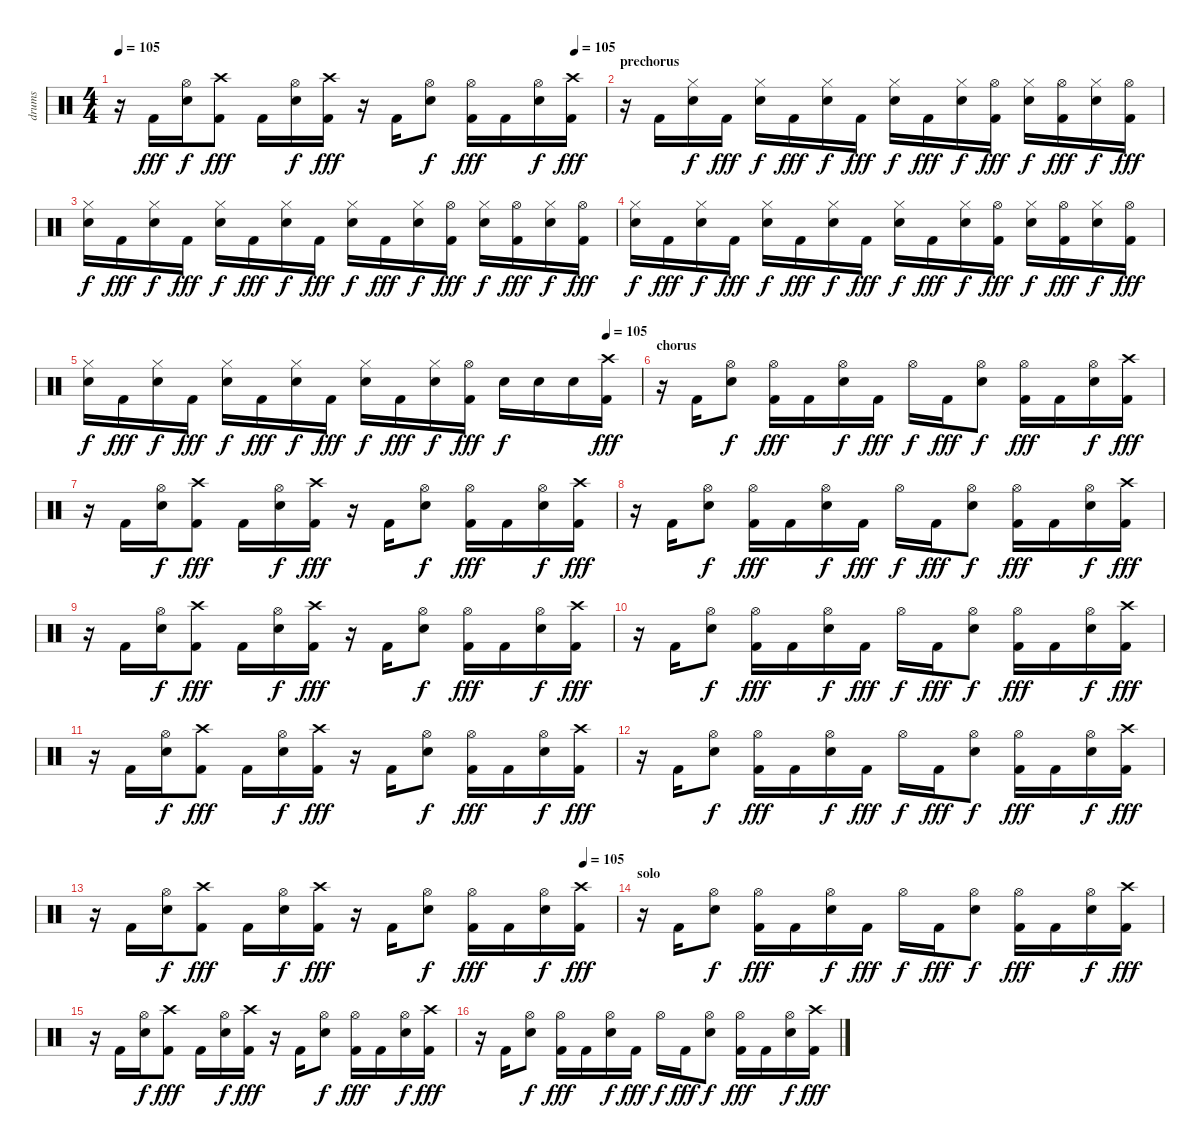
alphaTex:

\track ("drums" "drums") {instrument percussion}
\staff {score}
\articulation defaults
\ts (4 4)
\tempo 105
\tempo (105 0.9375)
\clef neutral
\ks c
r.16{dy fff} "Kick (hit) 2".16 ("Hi-Hat (open)" "Snare (hit) 2").16{dy f} ("Crash high (hit)" "Kick (hit) 2").8{dy fff} "Kick (hit) 2".16 ("Hi-Hat (open)" "Snare (hit) 2").16{dy f} ("Crash high (hit)" "Kick (hit) 2").16{dy fff} r.16 "Kick (hit) 2".16 ("Hi-Hat (open)" "Snare (hit) 2").8{dy f} ("Hi-Hat (open)" "Kick (hit) 2").16{dy fff} "Kick (hit) 2".16 ("Hi-Hat (open)" "Snare (hit) 2").16{dy f} ("Crash high (hit)" "Kick (hit) 2").16{dy fff} |
\section ("" "prechorus")
r.16 "Kick (hit) 2".16 ("Hi-Hat (closed)" "Snare (hit) 2").16{dy f} "Kick (hit) 2".16{dy fff} ("Hi-Hat (closed)" "Snare (hit) 2").16{dy f} "Kick (hit) 2".16{dy fff} ("Hi-Hat (closed)" "Snare (hit) 2").16{dy f} "Kick (hit) 2".16{dy fff} ("Hi-Hat (closed)" "Snare (hit) 2").16{dy f} "Kick (hit) 2".16{dy fff} ("Hi-Hat (closed)" "Snare (hit) 2").16{dy f} ("Hi-Hat (open)" "Kick (hit) 2").16{dy fff} ("Hi-Hat (closed)" "Snare (hit) 2").16{dy f} ("Hi-Hat (open)" "Kick (hit) 2").16{dy fff} ("Hi-Hat (closed)" "Snare (hit) 2").16{dy f} ("Hi-Hat (open)" "Kick (hit) 2").16{dy fff} |
("Hi-Hat (closed)" "Snare (hit) 2").16{dy f} "Kick (hit) 2".16{dy fff} ("Hi-Hat (closed)" "Snare (hit) 2").16{dy f} "Kick (hit) 2".16{dy fff} ("Hi-Hat (closed)" "Snare (hit) 2").16{dy f} "Kick (hit) 2".16{dy fff} ("Hi-Hat (closed)" "Snare (hit) 2").16{dy f} "Kick (hit) 2".16{dy fff} ("Hi-Hat (closed)" "Snare (hit) 2").16{dy f} "Kick (hit) 2".16{dy fff} ("Hi-Hat (closed)" "Snare (hit) 2").16{dy f} ("Hi-Hat (open)" "Kick (hit) 2").16{dy fff} ("Hi-Hat (closed)" "Snare (hit) 2").16{dy f} ("Hi-Hat (open)" "Kick (hit) 2").16{dy fff} ("Hi-Hat (closed)" "Snare (hit) 2").16{dy f} ("Hi-Hat (open)" "Kick (hit) 2").16{dy fff} |
("Hi-Hat (closed)" "Snare (hit) 2").16{dy f} "Kick (hit) 2".16{dy fff} ("Hi-Hat (closed)" "Snare (hit) 2").16{dy f} "Kick (hit) 2".16{dy fff} ("Hi-Hat (closed)" "Snare (hit) 2").16{dy f} "Kick (hit) 2".16{dy fff} ("Hi-Hat (closed)" "Snare (hit) 2").16{dy f} "Kick (hit) 2".16{dy fff} ("Hi-Hat (closed)" "Snare (hit) 2").16{dy f} "Kick (hit) 2".16{dy fff} ("Hi-Hat (closed)" "Snare (hit) 2").16{dy f} ("Hi-Hat (open)" "Kick (hit) 2").16{dy fff} ("Hi-Hat (closed)" "Snare (hit) 2").16{dy f} ("Hi-Hat (open)" "Kick (hit) 2").16{dy fff} ("Hi-Hat (closed)" "Snare (hit) 2").16{dy f} ("Hi-Hat (open)" "Kick (hit) 2").16{dy fff} |
\tempo (105 0.9375)
("Hi-Hat (closed)" "Snare (hit) 2").16{dy f} "Kick (hit) 2".16{dy fff} ("Hi-Hat (closed)" "Snare (hit) 2").16{dy f} "Kick (hit) 2".16{dy fff} ("Hi-Hat (closed)" "Snare (hit) 2").16{dy f} "Kick (hit) 2".16{dy fff} ("Hi-Hat (closed)" "Snare (hit) 2").16{dy f} "Kick (hit) 2".16{dy fff} ("Hi-Hat (closed)" "Snare (hit) 2").16{dy f} "Kick (hit) 2".16{dy fff} ("Hi-Hat (closed)" "Snare (hit) 2").16{dy f} ("Hi-Hat (open)" "Kick (hit) 2").16{dy fff} "Snare (hit) 2".16{dy f} "Snare (hit) 2".16 "Snare (hit) 2".16 ("Crash high (hit)" "Kick (hit) 2").16{dy fff} |
\section ("" "chorus")
r.16 "Kick (hit) 2".16 ("Hi-Hat (open)" "Snare (hit) 2").8{dy f} ("Hi-Hat (open)" "Kick (hit) 2").16{dy fff} "Kick (hit) 2".16 ("Hi-Hat (open)" "Snare (hit) 2").16{dy f} "Kick (hit) 2".16{dy fff} "Hi-Hat (open)".16{dy f} "Kick (hit) 2".16{dy fff} ("Hi-Hat (open)" "Snare (hit) 2").8{dy f} ("Hi-Hat (open)" "Kick (hit) 2").16{dy fff} "Kick (hit) 2".16 ("Hi-Hat (open)" "Snare (hit) 2").16{dy f} ("Crash high (hit)" "Kick (hit) 2").16{dy fff} |
r.16 "Kick (hit) 2".16 ("Hi-Hat (open)" "Snare (hit) 2").16{dy f} ("Crash high (hit)" "Kick (hit) 2").8{dy fff} "Kick (hit) 2".16 ("Hi-Hat (open)" "Snare (hit) 2").16{dy f} ("Crash high (hit)" "Kick (hit) 2").16{dy fff} r.16 "Kick (hit) 2".16 ("Hi-Hat (open)" "Snare (hit) 2").8{dy f} ("Hi-Hat (open)" "Kick (hit) 2").16{dy fff} "Kick (hit) 2".16 ("Hi-Hat (open)" "Snare (hit) 2").16{dy f} ("Crash high (hit)" "Kick (hit) 2").16{dy fff} |
r.16 "Kick (hit) 2".16 ("Hi-Hat (open)" "Snare (hit) 2").8{dy f} ("Hi-Hat (open)" "Kick (hit) 2").16{dy fff} "Kick (hit) 2".16 ("Hi-Hat (open)" "Snare (hit) 2").16{dy f} "Kick (hit) 2".16{dy fff} "Hi-Hat (open)".16{dy f} "Kick (hit) 2".16{dy fff} ("Hi-Hat (open)" "Snare (hit) 2").8{dy f} ("Hi-Hat (open)" "Kick (hit) 2").16{dy fff} "Kick (hit) 2".16 ("Hi-Hat (open)" "Snare (hit) 2").16{dy f} ("Crash high (hit)" "Kick (hit) 2").16{dy fff} |
r.16 "Kick (hit) 2".16 ("Hi-Hat (open)" "Snare (hit) 2").16{dy f} ("Crash high (hit)" "Kick (hit) 2").8{dy fff} "Kick (hit) 2".16 ("Hi-Hat (open)" "Snare (hit) 2").16{dy f} ("Crash high (hit)" "Kick (hit) 2").16{dy fff} r.16 "Kick (hit) 2".16 ("Hi-Hat (open)" "Snare (hit) 2").8{dy f} ("Hi-Hat (open)" "Kick (hit) 2").16{dy fff} "Kick (hit) 2".16 ("Hi-Hat (open)" "Snare (hit) 2").16{dy f} ("Crash high (hit)" "Kick (hit) 2").16{dy fff} |
r.16 "Kick (hit) 2".16 ("Hi-Hat (open)" "Snare (hit) 2").8{dy f} ("Hi-Hat (open)" "Kick (hit) 2").16{dy fff} "Kick (hit) 2".16 ("Hi-Hat (open)" "Snare (hit) 2").16{dy f} "Kick (hit) 2".16{dy fff} "Hi-Hat (open)".16{dy f} "Kick (hit) 2".16{dy fff} ("Hi-Hat (open)" "Snare (hit) 2").8{dy f} ("Hi-Hat (open)" "Kick (hit) 2").16{dy fff} "Kick (hit) 2".16 ("Hi-Hat (open)" "Snare (hit) 2").16{dy f} ("Crash high (hit)" "Kick (hit) 2").16{dy fff} |
r.16 "Kick (hit) 2".16 ("Hi-Hat (open)" "Snare (hit) 2").16{dy f} ("Crash high (hit)" "Kick (hit) 2").8{dy fff} "Kick (hit) 2".16 ("Hi-Hat (open)" "Snare (hit) 2").16{dy f} ("Crash high (hit)" "Kick (hit) 2").16{dy fff} r.16 "Kick (hit) 2".16 ("Hi-Hat (open)" "Snare (hit) 2").8{dy f} ("Hi-Hat (open)" "Kick (hit) 2").16{dy fff} "Kick (hit) 2".16 ("Hi-Hat (open)" "Snare (hit) 2").16{dy f} ("Crash high (hit)" "Kick (hit) 2").16{dy fff} |
r.16 "Kick (hit) 2".16 ("Hi-Hat (open)" "Snare (hit) 2").8{dy f} ("Hi-Hat (open)" "Kick (hit) 2").16{dy fff} "Kick (hit) 2".16 ("Hi-Hat (open)" "Snare (hit) 2").16{dy f} "Kick (hit) 2".16{dy fff} "Hi-Hat (open)".16{dy f} "Kick (hit) 2".16{dy fff} ("Hi-Hat (open)" "Snare (hit) 2").8{dy f} ("Hi-Hat (open)" "Kick (hit) 2").16{dy fff} "Kick (hit) 2".16 ("Hi-Hat (open)" "Snare (hit) 2").16{dy f} ("Crash high (hit)" "Kick (hit) 2").16{dy fff} |
\tempo (105 0.9375)
r.16 "Kick (hit) 2".16 ("Hi-Hat (open)" "Snare (hit) 2").16{dy f} ("Crash high (hit)" "Kick (hit) 2").8{dy fff} "Kick (hit) 2".16 ("Hi-Hat (open)" "Snare (hit) 2").16{dy f} ("Crash high (hit)" "Kick (hit) 2").16{dy fff} r.16 "Kick (hit) 2".16 ("Hi-Hat (open)" "Snare (hit) 2").8{dy f} ("Hi-Hat (open)" "Kick (hit) 2").16{dy fff} "Kick (hit) 2".16 ("Hi-Hat (open)" "Snare (hit) 2").16{dy f} ("Crash high (hit)" "Kick (hit) 2").16{dy fff} |
\section ("" "solo")
r.16 "Kick (hit) 2".16 ("Hi-Hat (open)" "Snare (hit) 2").8{dy f} ("Hi-Hat (open)" "Kick (hit) 2").16{dy fff} "Kick (hit) 2".16 ("Hi-Hat (open)" "Snare (hit) 2").16{dy f} "Kick (hit) 2".16{dy fff} "Hi-Hat (open)".16{dy f} "Kick (hit) 2".16{dy fff} ("Hi-Hat (open)" "Snare (hit) 2").8{dy f} ("Hi-Hat (open)" "Kick (hit) 2").16{dy fff} "Kick (hit) 2".16 ("Hi-Hat (open)" "Snare (hit) 2").16{dy f} ("Crash high (hit)" "Kick (hit) 2").16{dy fff} |
r.16 "Kick (hit) 2".16 ("Hi-Hat (open)" "Snare (hit) 2").16{dy f} ("Crash high (hit)" "Kick (hit) 2").8{dy fff} "Kick (hit) 2".16 ("Hi-Hat (open)" "Snare (hit) 2").16{dy f} ("Crash high (hit)" "Kick (hit) 2").16{dy fff} r.16 "Kick (hit) 2".16 ("Hi-Hat (open)" "Snare (hit) 2").8{dy f} ("Hi-Hat (open)" "Kick (hit) 2").16{dy fff} "Kick (hit) 2".16 ("Hi-Hat (open)" "Snare (hit) 2").16{dy f} ("Crash high (hit)" "Kick (hit) 2").16{dy fff} |
r.16 "Kick (hit) 2".16 ("Hi-Hat (open)" "Snare (hit) 2").8{dy f} ("Hi-Hat (open)" "Kick (hit) 2").16{dy fff} "Kick (hit) 2".16 ("Hi-Hat (open)" "Snare (hit) 2").16{dy f} "Kick (hit) 2".16{dy fff} "Hi-Hat (open)".16{dy f} "Kick (hit) 2".16{dy fff} ("Hi-Hat (open)" "Snare (hit) 2").8{dy f} ("Hi-Hat (open)" "Kick (hit) 2").16{dy fff} "Kick (hit) 2".16 ("Hi-Hat (open)" "Snare (hit) 2").16{dy f} ("Crash high (hit)" "Kick (hit) 2").16{dy fff}
